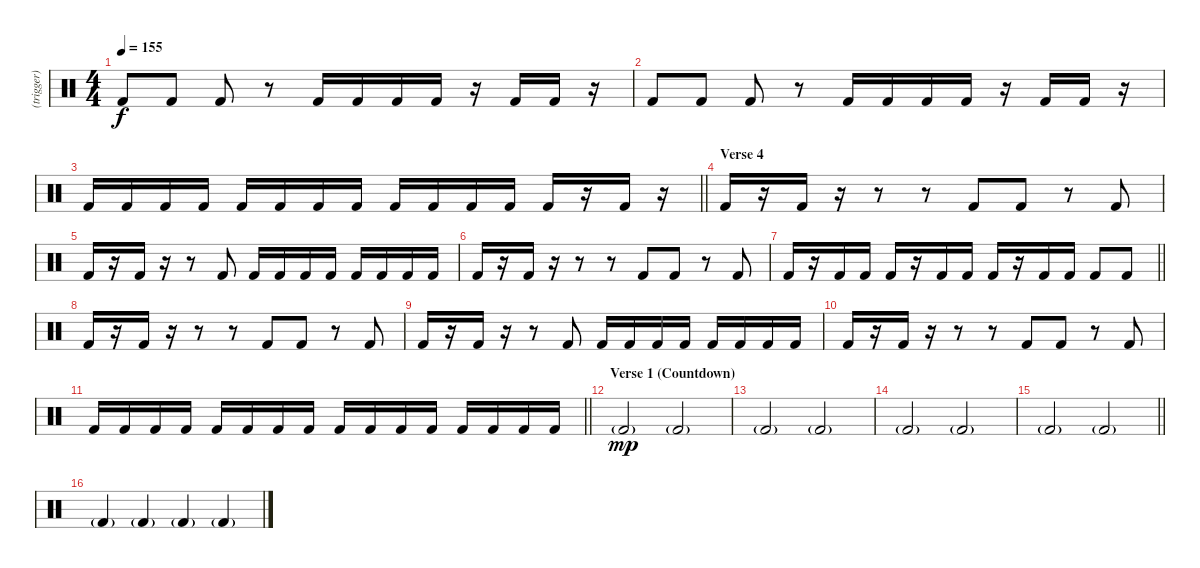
\track ("(trigger)" "(trigger)") {instrument percussion}
\staff {score}
\articulation defaults
\ts (4 4)
\tempo 155
\clef neutral
\ks c "Kick (hit) 2".8{dy f} "Kick (hit) 2".8 "Kick (hit) 2".8
r.8 "Kick (hit) 2".16 "Kick (hit) 2".16 "Kick (hit) 2".16 "Kick (hit) 2".16 r.16 "Kick (hit) 2".16 "Kick (hit) 2".16 r.16 |
"Kick (hit) 2".8 "Kick (hit) 2".8 "Kick (hit) 2".8 r.8 "Kick (hit) 2".16 "Kick (hit) 2".16 "Kick (hit) 2".16 "Kick (hit) 2".16 r.16 "Kick (hit) 2".16 "Kick (hit) 2".16 r.16 |
\barLineRight lightlight "Kick (hit) 2".16 "Kick (hit) 2".16 "Kick (hit) 2".16 "Kick (hit) 2".16 "Kick (hit) 2".16 "Kick (hit) 2".16 "Kick (hit) 2".16 "Kick (hit) 2".16 "Kick (hit) 2".16 "Kick (hit) 2".16 "Kick (hit) 2".16 "Kick (hit) 2".16 "Kick (hit) 2".16
r.16 "Kick (hit) 2".16 r.16 |
\section ("" "Verse 4")
"Kick (hit) 2".16 r.16 "Kick (hit) 2".16 r.16 r.8 r.8 "Kick (hit) 2".8 "Kick (hit) 2".8 r.8 "Kick (hit) 2".8 |
"Kick (hit) 2".16 r.16 "Kick (hit) 2".16 r.16 r.8 "Kick (hit) 2".8 "Kick (hit) 2".16 "Kick (hit) 2".16 "Kick (hit) 2".16 "Kick (hit) 2".16 "Kick (hit) 2".16 "Kick (hit) 2".16 "Kick (hit) 2".16 "Kick (hit) 2".16 |
"Kick (hit) 2".16 r.16 "Kick (hit) 2".16 r.16 r.8 r.8 "Kick (hit) 2".8 "Kick (hit) 2".8 r.8 "Kick (hit) 2".8 |
\barLineRight lightlight "Kick (hit) 2".16
r.16 "Kick (hit) 2".16 "Kick (hit) 2".16 "Kick (hit) 2".16 r.16 "Kick (hit) 2".16 "Kick (hit) 2".16 "Kick (hit) 2".16 r.16 "Kick (hit) 2".16 "Kick (hit) 2".16 "Kick (hit) 2".8 "Kick (hit) 2".8 |
"Kick (hit) 2".16 r.16 "Kick (hit) 2".16 r.16 r.8 r.8 "Kick (hit) 2".8 "Kick (hit) 2".8 r.8 "Kick (hit) 2".8 |
"Kick (hit) 2".16 r.16 "Kick (hit) 2".16 r.16 r.8 "Kick (hit) 2".8 "Kick (hit) 2".16 "Kick (hit) 2".16 "Kick (hit) 2".16 "Kick (hit) 2".16 "Kick (hit) 2".16 "Kick (hit) 2".16 "Kick (hit) 2".16 "Kick (hit) 2".16 |
"Kick (hit) 2".16 r.16 "Kick (hit) 2".16 r.16 r.8 r.8 "Kick (hit) 2".8 "Kick (hit) 2".8 r.8 "Kick (hit) 2".8 |
\barLineRight lightlight "Kick (hit) 2".16 "Kick (hit) 2".16 "Kick (hit) 2".16 "Kick (hit) 2".16 "Kick (hit) 2".16 "Kick (hit) 2".16 "Kick (hit) 2".16 "Kick (hit) 2".16 "Kick (hit) 2".16 "Kick (hit) 2".16 "Kick (hit) 2".16 "Kick (hit) 2".16 "Kick (hit) 2".16 "Kick (hit) 2".16 "Kick (hit) 2".16 "Kick (hit) 2".16
|
\section ("" "Verse 1 (Countdown)")
"Kick (hit) 2"{g}.2{dy mp} "Kick (hit) 2"{g}.2 |
"Kick (hit) 2"{g}.2 "Kick (hit) 2"{g}.2 |
"Kick (hit) 2"{g}.2 "Kick (hit) 2"{g}.2 |
\barLineRight lightlight "Kick (hit) 2"{g}.2 "Kick (hit) 2"{g}.2
|
"Kick (hit) 2"{g}.4 "Kick (hit) 2"{g}.4 "Kick (hit) 2"{g}.4 "Kick (hit) 2"{g}.4
